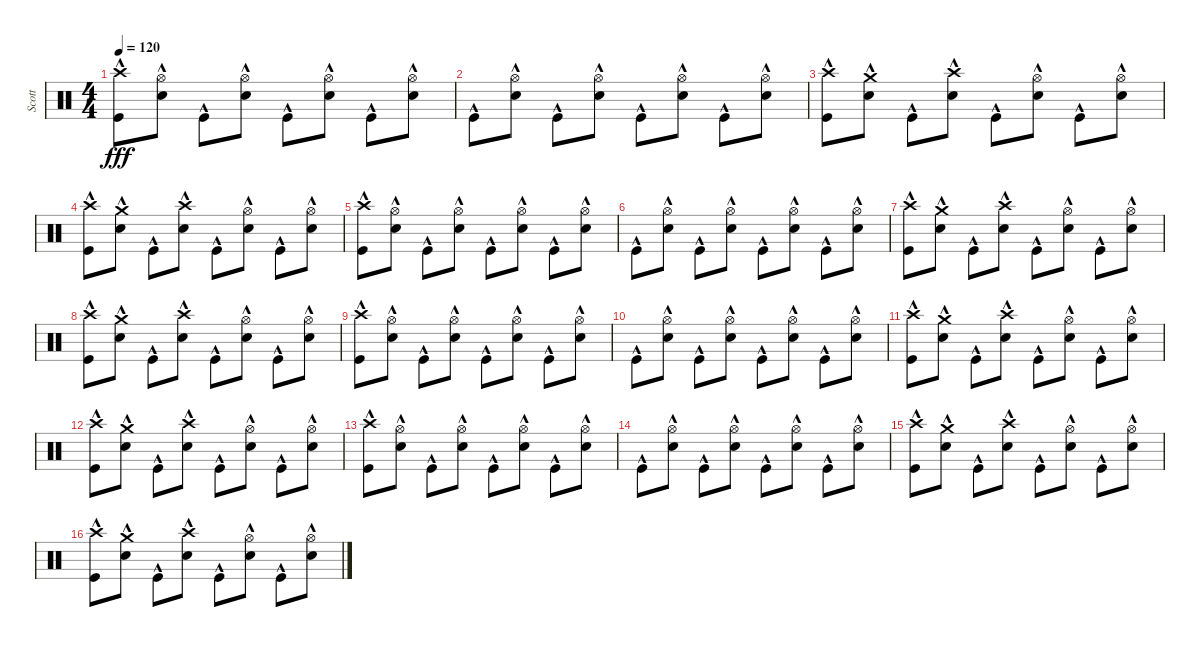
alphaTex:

\track ("Scott" "Scott") {instrument percussion}
\staff {score}
\articulation defaults
\ts (4 4)
\tempo 120
\clef neutral
\ks c
("Crash high (hit)"{hac} "Kick (hit)"{hac}).8{dy fff} ("Hi-Hat (open)"{hac} "Electric Snare (hit)"{hac}).8 "Kick (hit)"{hac}.8 ("Hi-Hat (open)"{hac} "Electric Snare (hit)"{hac}).8 "Kick (hit)"{hac}.8 ("Hi-Hat (open)"{hac} "Electric Snare (hit)"{hac}).8 "Kick (hit)"{hac}.8 ("Hi-Hat (open)"{hac} "Electric Snare (hit)"{hac}).8 |
"Kick (hit)"{hac}.8 ("Hi-Hat (open)"{hac} "Electric Snare (hit)"{hac}).8 "Kick (hit)"{hac}.8 ("Hi-Hat (open)"{hac} "Electric Snare (hit)"{hac}).8 "Kick (hit)"{hac}.8 ("Hi-Hat (open)"{hac} "Electric Snare (hit)"{hac}).8 "Kick (hit)"{hac}.8 ("Hi-Hat (open)"{hac} "Electric Snare (hit)"{hac}).8 |
("Crash high (hit)"{hac} "Kick (hit)"{hac}).8 ("Crash medium (hit)"{hac} "Electric Snare (hit)"{hac}).8 "Kick (hit)"{hac}.8 ("Crash high (hit)"{hac} "Electric Snare (hit)"{hac}).8 "Kick (hit)"{hac}.8 ("Hi-Hat (open)"{hac} "Electric Snare (hit)"{hac}).8 "Kick (hit)"{hac}.8 ("Hi-Hat (open)"{hac} "Electric Snare (hit)"{hac}).8 |
("Crash high (hit)"{hac} "Kick (hit)"{hac}).8 ("Crash medium (hit)"{hac} "Electric Snare (hit)"{hac}).8 "Kick (hit)"{hac}.8 ("Crash high (hit)"{hac} "Electric Snare (hit)"{hac}).8 "Kick (hit)"{hac}.8 ("Hi-Hat (open)"{hac} "Electric Snare (hit)"{hac}).8 "Kick (hit)"{hac}.8 ("Hi-Hat (open)"{hac} "Electric Snare (hit)"{hac}).8 |
("Crash high (hit)"{hac} "Kick (hit)"{hac}).8 ("Hi-Hat (open)"{hac} "Electric Snare (hit)"{hac}).8 "Kick (hit)"{hac}.8 ("Hi-Hat (open)"{hac} "Electric Snare (hit)"{hac}).8 "Kick (hit)"{hac}.8 ("Hi-Hat (open)"{hac} "Electric Snare (hit)"{hac}).8 "Kick (hit)"{hac}.8 ("Hi-Hat (open)"{hac} "Electric Snare (hit)"{hac}).8 |
"Kick (hit)"{hac}.8 ("Hi-Hat (open)"{hac} "Electric Snare (hit)"{hac}).8 "Kick (hit)"{hac}.8 ("Hi-Hat (open)"{hac} "Electric Snare (hit)"{hac}).8 "Kick (hit)"{hac}.8 ("Hi-Hat (open)"{hac} "Electric Snare (hit)"{hac}).8 "Kick (hit)"{hac}.8 ("Hi-Hat (open)"{hac} "Electric Snare (hit)"{hac}).8 |
("Crash high (hit)"{hac} "Kick (hit)"{hac}).8 ("Crash medium (hit)"{hac} "Electric Snare (hit)"{hac}).8 "Kick (hit)"{hac}.8 ("Crash high (hit)"{hac} "Electric Snare (hit)"{hac}).8 "Kick (hit)"{hac}.8 ("Hi-Hat (open)"{hac} "Electric Snare (hit)"{hac}).8 "Kick (hit)"{hac}.8 ("Hi-Hat (open)"{hac} "Electric Snare (hit)"{hac}).8 |
("Crash high (hit)"{hac} "Kick (hit)"{hac}).8 ("Crash medium (hit)"{hac} "Electric Snare (hit)"{hac}).8 "Kick (hit)"{hac}.8 ("Crash high (hit)"{hac} "Electric Snare (hit)"{hac}).8 "Kick (hit)"{hac}.8 ("Hi-Hat (open)"{hac} "Electric Snare (hit)"{hac}).8 "Kick (hit)"{hac}.8 ("Hi-Hat (open)"{hac} "Electric Snare (hit)"{hac}).8 |
("Crash high (hit)"{hac} "Kick (hit)"{hac}).8 ("Hi-Hat (open)"{hac} "Electric Snare (hit)"{hac}).8 "Kick (hit)"{hac}.8 ("Hi-Hat (open)"{hac} "Electric Snare (hit)"{hac}).8 "Kick (hit)"{hac}.8 ("Hi-Hat (open)"{hac} "Electric Snare (hit)"{hac}).8 "Kick (hit)"{hac}.8 ("Hi-Hat (open)"{hac} "Electric Snare (hit)"{hac}).8 |
"Kick (hit)"{hac}.8 ("Hi-Hat (open)"{hac} "Electric Snare (hit)"{hac}).8 "Kick (hit)"{hac}.8 ("Hi-Hat (open)"{hac} "Electric Snare (hit)"{hac}).8 "Kick (hit)"{hac}.8 ("Hi-Hat (open)"{hac} "Electric Snare (hit)"{hac}).8 "Kick (hit)"{hac}.8 ("Hi-Hat (open)"{hac} "Electric Snare (hit)"{hac}).8 |
("Crash high (hit)"{hac} "Kick (hit)"{hac}).8 ("Crash medium (hit)"{hac} "Electric Snare (hit)"{hac}).8 "Kick (hit)"{hac}.8 ("Crash high (hit)"{hac} "Electric Snare (hit)"{hac}).8 "Kick (hit)"{hac}.8 ("Hi-Hat (open)"{hac} "Electric Snare (hit)"{hac}).8 "Kick (hit)"{hac}.8 ("Hi-Hat (open)"{hac} "Electric Snare (hit)"{hac}).8 |
("Crash high (hit)"{hac} "Kick (hit)"{hac}).8 ("Crash medium (hit)"{hac} "Electric Snare (hit)"{hac}).8 "Kick (hit)"{hac}.8 ("Crash high (hit)"{hac} "Electric Snare (hit)"{hac}).8 "Kick (hit)"{hac}.8 ("Hi-Hat (open)"{hac} "Electric Snare (hit)"{hac}).8 "Kick (hit)"{hac}.8 ("Hi-Hat (open)"{hac} "Electric Snare (hit)"{hac}).8 |
("Crash high (hit)"{hac} "Kick (hit)"{hac}).8 ("Hi-Hat (open)"{hac} "Electric Snare (hit)"{hac}).8 "Kick (hit)"{hac}.8 ("Hi-Hat (open)"{hac} "Electric Snare (hit)"{hac}).8 "Kick (hit)"{hac}.8 ("Hi-Hat (open)"{hac} "Electric Snare (hit)"{hac}).8 "Kick (hit)"{hac}.8 ("Hi-Hat (open)"{hac} "Electric Snare (hit)"{hac}).8 |
"Kick (hit)"{hac}.8 ("Hi-Hat (open)"{hac} "Electric Snare (hit)"{hac}).8 "Kick (hit)"{hac}.8 ("Hi-Hat (open)"{hac} "Electric Snare (hit)"{hac}).8 "Kick (hit)"{hac}.8 ("Hi-Hat (open)"{hac} "Electric Snare (hit)"{hac}).8 "Kick (hit)"{hac}.8 ("Hi-Hat (open)"{hac} "Electric Snare (hit)"{hac}).8 |
("Crash high (hit)"{hac} "Kick (hit)"{hac}).8 ("Crash medium (hit)"{hac} "Electric Snare (hit)"{hac}).8 "Kick (hit)"{hac}.8 ("Crash high (hit)"{hac} "Electric Snare (hit)"{hac}).8 "Kick (hit)"{hac}.8 ("Hi-Hat (open)"{hac} "Electric Snare (hit)"{hac}).8 "Kick (hit)"{hac}.8 ("Hi-Hat (open)"{hac} "Electric Snare (hit)"{hac}).8 |
("Crash high (hit)"{hac} "Kick (hit)"{hac}).8 ("Crash medium (hit)"{hac} "Electric Snare (hit)"{hac}).8 "Kick (hit)"{hac}.8 ("Crash high (hit)"{hac} "Electric Snare (hit)"{hac}).8 "Kick (hit)"{hac}.8 ("Hi-Hat (open)"{hac} "Electric Snare (hit)"{hac}).8 "Kick (hit)"{hac}.8 ("Hi-Hat (open)"{hac} "Electric Snare (hit)"{hac}).8
